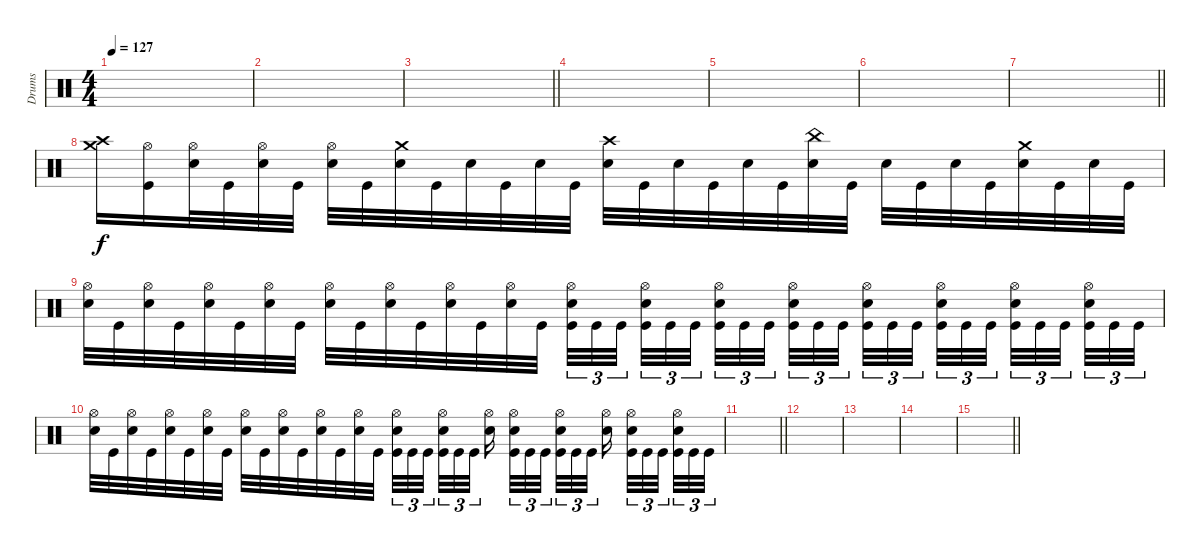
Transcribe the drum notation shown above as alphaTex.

\track ("Drums" "Drums") {instrument percussion}
\staff
\articulation defaults
\ts (4 4)
\tempo 127
\clef neutral
\ks c
|
|
\barLineRight lightlight
|
|
|
|
\barLineRight lightlight
|
("Crash high (hit)" "Crash medium (hit)").16 ("Hi-Hat (open)" "Kick (hit)").16 ("Hi-Hat (open)" "Electric Snare (hit)").32 "Kick (hit)".32 ("Hi-Hat (open)" "Electric Snare (hit)").32 "Kick (hit)".32 ("Hi-Hat (open)" "Electric Snare (hit)").32 "Kick (hit)".32 ("Crash medium (hit)" "Electric Snare (hit)").32 "Kick (hit)".32 "Electric Snare (hit)".32 "Kick (hit)".32 "Electric Snare (hit)".32 "Kick (hit)".32 ("Crash high (hit)" "Electric Snare (hit)").32 "Kick (hit)".32 "Electric Snare (hit)".32 "Kick (hit)".32 "Electric Snare (hit)".32 "Kick (hit)".32 ("China (hit)" "Electric Snare (hit)").32 "Kick (hit)".32 "Electric Snare (hit)".32 "Kick (hit)".32 "Electric Snare (hit)".32 "Kick (hit)".32 ("Crash medium (hit)" "Electric Snare (hit)").32 "Kick (hit)".32 "Electric Snare (hit)".32 "Kick (hit)".32 |
("Hi-Hat (open)" "Electric Snare (hit)").32 "Kick (hit)".32 ("Hi-Hat (open)" "Electric Snare (hit)").32 "Kick (hit)".32 ("Hi-Hat (open)" "Electric Snare (hit)").32 "Kick (hit)".32 ("Hi-Hat (open)" "Electric Snare (hit)").32 "Kick (hit)".32 ("Hi-Hat (open)" "Electric Snare (hit)").32 "Kick (hit)".32 ("Hi-Hat (open)" "Electric Snare (hit)").32 "Kick (hit)".32 ("Hi-Hat (open)" "Electric Snare (hit)").32 "Kick (hit)".32 ("Hi-Hat (open)" "Electric Snare (hit)").32 "Kick (hit)".32 ("Hi-Hat (open)" "Electric Snare (hit)" "Kick (hit)").32{tu (3 2)} "Kick (hit)".32{tu (3 2)} "Kick (hit)".32{tu (3 2) beam splitsecondary} ("Hi-Hat (open)" "Electric Snare (hit)" "Kick (hit)").32{tu (3 2)} "Kick (hit)".32{tu (3 2)} "Kick (hit)".32{tu (3 2) beam splitsecondary} ("Hi-Hat (open)" "Electric Snare (hit)" "Kick (hit)").32{tu (3 2)} "Kick (hit)".32{tu (3 2)} "Kick (hit)".32{tu (3 2) beam splitsecondary} ("Hi-Hat (open)" "Electric Snare (hit)" "Kick (hit)").32{tu (3 2)} "Kick (hit)".32{tu (3 2)} "Kick (hit)".32{tu (3 2)} ("Hi-Hat (open)" "Electric Snare (hit)" "Kick (hit)").32{tu (3 2)} "Kick (hit)".32{tu (3 2)} "Kick (hit)".32{tu (3 2) beam splitsecondary} ("Hi-Hat (open)" "Electric Snare (hit)" "Kick (hit)").32{tu (3 2)} "Kick (hit)".32{tu (3 2)} "Kick (hit)".32{tu (3 2) beam splitsecondary} ("Hi-Hat (open)" "Electric Snare (hit)" "Kick (hit)").32{tu (3 2)} "Kick (hit)".32{tu (3 2)} "Kick (hit)".32{tu (3 2) beam splitsecondary} ("Hi-Hat (open)" "Electric Snare (hit)" "Kick (hit)").32{tu (3 2)} "Kick (hit)".32{tu (3 2)} "Kick (hit)".32{tu (3 2)} |
("Hi-Hat (open)" "Electric Snare (hit)").32 "Kick (hit)".32 ("Hi-Hat (open)" "Electric Snare (hit)").32 "Kick (hit)".32 ("Hi-Hat (open)" "Electric Snare (hit)").32 "Kick (hit)".32 ("Hi-Hat (open)" "Electric Snare (hit)").32 "Kick (hit)".32 ("Hi-Hat (open)" "Electric Snare (hit)").32 "Kick (hit)".32 ("Hi-Hat (open)" "Electric Snare (hit)").32 "Kick (hit)".32 ("Hi-Hat (open)" "Electric Snare (hit)").32 "Kick (hit)".32 ("Hi-Hat (open)" "Electric Snare (hit)").32 "Kick (hit)".32 ("Hi-Hat (open)" "Electric Snare (hit)" "Kick (hit)").32{tu (3 2)} "Kick (hit)".32{tu (3 2)} "Kick (hit)".32{tu (3 2) beam splitsecondary} ("Hi-Hat (open)" "Electric Snare (hit)" "Kick (hit)").32{tu (3 2)} "Kick (hit)".32{tu (3 2)} "Kick (hit)".32{tu (3 2) beam splitsecondary} ("Hi-Hat (open)" "Electric Snare (hit)").16{beam splitsecondary} ("Hi-Hat (open)" "Electric Snare (hit)" "Kick (hit)").32{tu (3 2)} "Kick (hit)".32{tu (3 2)} "Kick (hit)".32{tu (3 2)} ("Hi-Hat (open)" "Electric Snare (hit)" "Kick (hit)").32{tu (3 2)} "Kick (hit)".32{tu (3 2)} "Kick (hit)".32{tu (3 2) beam splitsecondary} ("Hi-Hat (open)" "Electric Snare (hit)").16{beam splitsecondary} ("Hi-Hat (open)" "Electric Snare (hit)" "Kick (hit)").32{tu (3 2)} "Kick (hit)".32{tu (3 2)} "Kick (hit)".32{tu (3 2) beam splitsecondary} ("Hi-Hat (open)" "Electric Snare (hit)" "Kick (hit)").32{tu (3 2)} "Kick (hit)".32{tu (3 2)} "Kick (hit)".32{tu (3 2)} |
\barLineRight lightlight
|
|
|
|
\barLineRight lightlight
